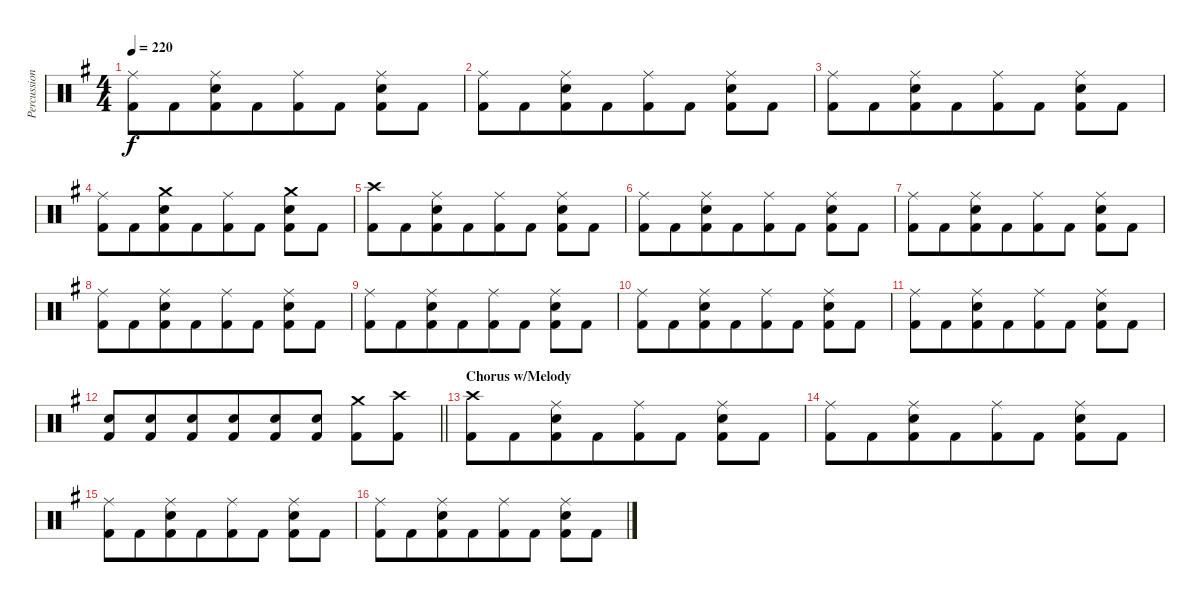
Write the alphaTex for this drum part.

\track ("Percussion" "Percussion") {instrument percussion}
\staff {score}
\articulation defaults
\ts (4 4)
\tempo 220
\clef neutral
\ks eminor
("Ride (middle)" "Kick (hit) 2").8{dy f} "Kick (hit) 2".8{beam merge} ("Ride (middle)" "Snare (hit) 2" "Kick (hit) 2").8{beam merge} "Kick (hit) 2".8{beam merge} ("Ride (middle)" "Kick (hit) 2").8{beam merge} "Kick (hit) 2".8 ("Ride (middle)" "Snare (hit) 2" "Kick (hit) 2").8 "Kick (hit) 2".8 |
("Ride (middle)" "Kick (hit) 2").8 "Kick (hit) 2".8{beam merge} ("Ride (middle)" "Snare (hit) 2" "Kick (hit) 2").8{beam merge} "Kick (hit) 2".8{beam merge} ("Ride (middle)" "Kick (hit) 2").8{beam merge} "Kick (hit) 2".8 ("Ride (middle)" "Snare (hit) 2" "Kick (hit) 2").8 "Kick (hit) 2".8 |
("Ride (middle)" "Kick (hit) 2").8 "Kick (hit) 2".8{beam merge} ("Ride (middle)" "Snare (hit) 2" "Kick (hit) 2").8{beam merge} "Kick (hit) 2".8{beam merge} ("Ride (middle)" "Kick (hit) 2").8{beam merge} "Kick (hit) 2".8 ("Ride (middle)" "Snare (hit) 2" "Kick (hit) 2").8 "Kick (hit) 2".8 |
("Ride (middle)" "Kick (hit) 2").8 "Kick (hit) 2".8{beam merge} ("Crash medium (hit)" "Snare (hit) 2" "Kick (hit) 2").8{beam merge} "Kick (hit) 2".8{beam merge} ("Ride (middle)" "Kick (hit) 2").8{beam merge} "Kick (hit) 2".8 ("Crash medium (hit)" "Snare (hit) 2" "Kick (hit) 2").8 "Kick (hit) 2".8 |
("Crash high (hit)" "Kick (hit) 2").8 "Kick (hit) 2".8{beam merge} ("Ride (middle)" "Snare (hit) 2" "Kick (hit) 2").8{beam merge} "Kick (hit) 2".8{beam merge} ("Ride (middle)" "Kick (hit) 2").8{beam merge} "Kick (hit) 2".8 ("Ride (middle)" "Snare (hit) 2" "Kick (hit) 2").8 "Kick (hit) 2".8 |
("Ride (middle)" "Kick (hit) 2").8 "Kick (hit) 2".8{beam merge} ("Ride (middle)" "Snare (hit) 2" "Kick (hit) 2").8{beam merge} "Kick (hit) 2".8{beam merge} ("Ride (middle)" "Kick (hit) 2").8{beam merge} "Kick (hit) 2".8 ("Ride (middle)" "Snare (hit) 2" "Kick (hit) 2").8 "Kick (hit) 2".8 |
("Ride (middle)" "Kick (hit) 2").8 "Kick (hit) 2".8{beam merge} ("Ride (middle)" "Snare (hit) 2" "Kick (hit) 2").8{beam merge} "Kick (hit) 2".8{beam merge} ("Ride (middle)" "Kick (hit) 2").8{beam merge} "Kick (hit) 2".8 ("Ride (middle)" "Snare (hit) 2" "Kick (hit) 2").8 "Kick (hit) 2".8 |
("Ride (middle)" "Kick (hit) 2").8 "Kick (hit) 2".8{beam merge} ("Ride (middle)" "Snare (hit) 2" "Kick (hit) 2").8{beam merge} "Kick (hit) 2".8{beam merge} ("Ride (middle)" "Kick (hit) 2").8{beam merge} "Kick (hit) 2".8 ("Ride (middle)" "Snare (hit) 2" "Kick (hit) 2").8 "Kick (hit) 2".8 |
("Ride (middle)" "Kick (hit) 2").8 "Kick (hit) 2".8{beam merge} ("Ride (middle)" "Snare (hit) 2" "Kick (hit) 2").8{beam merge} "Kick (hit) 2".8{beam merge} ("Ride (middle)" "Kick (hit) 2").8{beam merge} "Kick (hit) 2".8 ("Ride (middle)" "Snare (hit) 2" "Kick (hit) 2").8 "Kick (hit) 2".8 |
("Ride (middle)" "Kick (hit) 2").8 "Kick (hit) 2".8{beam merge} ("Ride (middle)" "Snare (hit) 2" "Kick (hit) 2").8{beam merge} "Kick (hit) 2".8{beam merge} ("Ride (middle)" "Kick (hit) 2").8{beam merge} "Kick (hit) 2".8 ("Ride (middle)" "Snare (hit) 2" "Kick (hit) 2").8 "Kick (hit) 2".8 |
("Ride (middle)" "Kick (hit) 2").8 "Kick (hit) 2".8{beam merge} ("Ride (middle)" "Snare (hit) 2" "Kick (hit) 2").8{beam merge} "Kick (hit) 2".8{beam merge} ("Ride (middle)" "Kick (hit) 2").8{beam merge} "Kick (hit) 2".8 ("Ride (middle)" "Snare (hit) 2" "Kick (hit) 2").8 "Kick (hit) 2".8 |
\barLineRight lightlight
("Snare (hit) 2" "Kick (hit) 2").8 ("Snare (hit) 2" "Kick (hit) 2").8{beam merge} ("Snare (hit) 2" "Kick (hit) 2").8{beam merge} ("Snare (hit) 2" "Kick (hit) 2").8{beam merge} ("Snare (hit) 2" "Kick (hit) 2").8{beam merge} ("Snare (hit) 2" "Kick (hit) 2").8 ("Crash medium (hit)" "Kick (hit) 2").8 ("Crash high (hit)" "Kick (hit) 2").8 |
\section ("" "Chorus w/Melody")
("Crash high (hit)" "Kick (hit) 2").8 "Kick (hit) 2".8{beam merge} ("Ride (middle)" "Snare (hit) 2" "Kick (hit) 2").8{beam merge} "Kick (hit) 2".8{beam merge} ("Ride (middle)" "Kick (hit) 2").8{beam merge} "Kick (hit) 2".8 ("Ride (middle)" "Snare (hit) 2" "Kick (hit) 2").8 "Kick (hit) 2".8 |
("Ride (middle)" "Kick (hit) 2").8 "Kick (hit) 2".8{beam merge} ("Ride (middle)" "Snare (hit) 2" "Kick (hit) 2").8{beam merge} "Kick (hit) 2".8{beam merge} ("Ride (middle)" "Kick (hit) 2").8{beam merge} "Kick (hit) 2".8 ("Ride (middle)" "Snare (hit) 2" "Kick (hit) 2").8 "Kick (hit) 2".8 |
("Ride (middle)" "Kick (hit) 2").8 "Kick (hit) 2".8{beam merge} ("Ride (middle)" "Snare (hit) 2" "Kick (hit) 2").8{beam merge} "Kick (hit) 2".8{beam merge} ("Ride (middle)" "Kick (hit) 2").8{beam merge} "Kick (hit) 2".8 ("Ride (middle)" "Snare (hit) 2" "Kick (hit) 2").8 "Kick (hit) 2".8 |
("Ride (middle)" "Kick (hit) 2").8 "Kick (hit) 2".8{beam merge} ("Ride (middle)" "Snare (hit) 2" "Kick (hit) 2").8{beam merge} "Kick (hit) 2".8{beam merge} ("Ride (middle)" "Kick (hit) 2").8{beam merge} "Kick (hit) 2".8 ("Ride (middle)" "Snare (hit) 2" "Kick (hit) 2").8 "Kick (hit) 2".8
